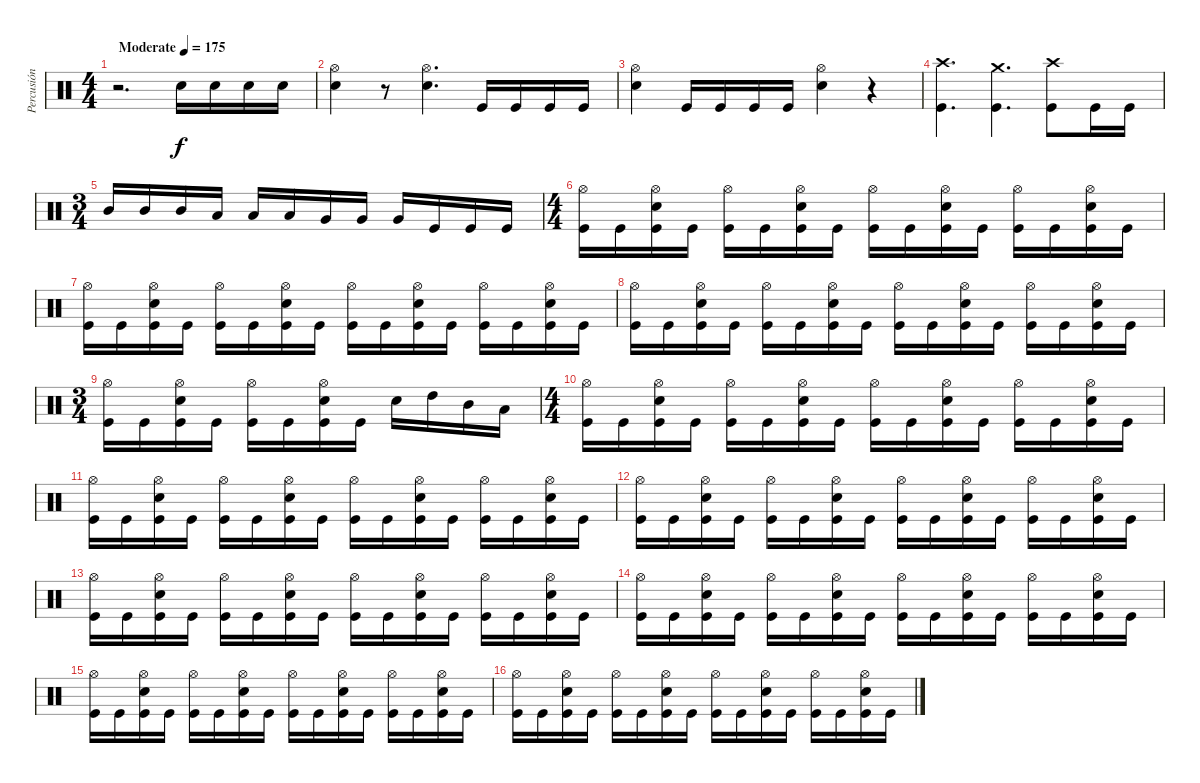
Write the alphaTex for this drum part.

\track ("Percusión" "Percusión") {instrument percussion}
\staff {score}
\articulation defaults
\ts (4 4)
\tempo (175 "Moderate")
\clef neutral
\ks c
r.2{d dy f} "Snare (hit) 2".16 "Snare (hit) 2".16 "Snare (hit) 2".16 "Snare (hit) 2".16 |
("Snare (hit) 2" "Hi-Hat (open)").4 r.8 ("Snare (hit) 2" "Hi-Hat (open)").4{d} "Kick (hit)".16 "Kick (hit)".16 "Kick (hit)".16 "Kick (hit)".16 |
("Hi-Hat (open)" "Snare (hit) 2").4 "Kick (hit)".16 "Kick (hit)".16 "Kick (hit)".16 "Kick (hit)".16 ("Hi-Hat (open)" "Snare (hit) 2").4 r.4 |
("Crash high (hit)" "Kick (hit)").4{d} ("Crash medium (hit)" "Kick (hit)").4{d} ("Crash high (hit)" "Kick (hit)").8 "Kick (hit)".16 "Kick (hit)".16 |
\ts (3 4)
"Mid Tom (hit)".16 "Mid Tom (hit)".16 "Mid Tom (hit)".16 "Low Tom (hit)".16 "Low Tom (hit)".16 "Low Tom (hit)".16 "Very Low Tom (hit)".16 "Very Low Tom (hit)".16 "Very Low Tom (hit)".16 "Kick (hit)".16 "Kick (hit)".16 "Kick (hit)".16 |
\ts (4 4)
("Hi-Hat (open)" "Kick (hit)").16 "Kick (hit)".16 ("Hi-Hat (open)" "Snare (hit) 2" "Kick (hit)").16 "Kick (hit)".16 ("Hi-Hat (open)" "Kick (hit)").16 "Kick (hit)".16 ("Hi-Hat (open)" "Snare (hit) 2" "Kick (hit)").16 "Kick (hit)".16 ("Hi-Hat (open)" "Kick (hit)").16 "Kick (hit)".16 ("Hi-Hat (open)" "Snare (hit) 2" "Kick (hit)").16 "Kick (hit)".16 ("Hi-Hat (open)" "Kick (hit)").16 "Kick (hit)".16 ("Hi-Hat (open)" "Snare (hit) 2" "Kick (hit)").16 "Kick (hit)".16 |
("Hi-Hat (open)" "Kick (hit)").16 "Kick (hit)".16 ("Hi-Hat (open)" "Snare (hit) 2" "Kick (hit)").16 "Kick (hit)".16 ("Hi-Hat (open)" "Kick (hit)").16 "Kick (hit)".16 ("Hi-Hat (open)" "Snare (hit) 2" "Kick (hit)").16 "Kick (hit)".16 ("Hi-Hat (open)" "Kick (hit)").16 "Kick (hit)".16 ("Hi-Hat (open)" "Snare (hit) 2" "Kick (hit)").16 "Kick (hit)".16 ("Hi-Hat (open)" "Kick (hit)").16 "Kick (hit)".16 ("Hi-Hat (open)" "Snare (hit) 2" "Kick (hit)").16 "Kick (hit)".16 |
("Hi-Hat (open)" "Kick (hit)").16 "Kick (hit)".16 ("Hi-Hat (open)" "Snare (hit) 2" "Kick (hit)").16 "Kick (hit)".16 ("Hi-Hat (open)" "Kick (hit)").16 "Kick (hit)".16 ("Hi-Hat (open)" "Snare (hit) 2" "Kick (hit)").16 "Kick (hit)".16 ("Hi-Hat (open)" "Kick (hit)").16 "Kick (hit)".16 ("Hi-Hat (open)" "Snare (hit) 2" "Kick (hit)").16 "Kick (hit)".16 ("Hi-Hat (open)" "Kick (hit)").16 "Kick (hit)".16 ("Hi-Hat (open)" "Snare (hit) 2" "Kick (hit)").16 "Kick (hit)".16 |
\ts (3 4)
("Hi-Hat (open)" "Kick (hit)").16 "Kick (hit)".16 ("Hi-Hat (open)" "Snare (hit) 2" "Kick (hit)").16 "Kick (hit)".16 ("Hi-Hat (open)" "Kick (hit)").16 "Kick (hit)".16 ("Hi-Hat (open)" "Snare (hit) 2" "Kick (hit)").16 "Kick (hit)".16 "Snare (hit) 2".16 "High Tom (hit)".16 "Mid Tom (hit)".16 "Low Tom (hit)".16 |
\ts (4 4)
("Hi-Hat (open)" "Kick (hit)").16 "Kick (hit)".16 ("Hi-Hat (open)" "Snare (hit) 2" "Kick (hit)").16 "Kick (hit)".16 ("Hi-Hat (open)" "Kick (hit)").16 "Kick (hit)".16 ("Hi-Hat (open)" "Snare (hit) 2" "Kick (hit)").16 "Kick (hit)".16 ("Hi-Hat (open)" "Kick (hit)").16 "Kick (hit)".16 ("Hi-Hat (open)" "Snare (hit) 2" "Kick (hit)").16 "Kick (hit)".16 ("Hi-Hat (open)" "Kick (hit)").16 "Kick (hit)".16 ("Hi-Hat (open)" "Snare (hit) 2" "Kick (hit)").16 "Kick (hit)".16 |
("Hi-Hat (open)" "Kick (hit)").16 "Kick (hit)".16 ("Hi-Hat (open)" "Snare (hit) 2" "Kick (hit)").16 "Kick (hit)".16 ("Hi-Hat (open)" "Kick (hit)").16 "Kick (hit)".16 ("Hi-Hat (open)" "Snare (hit) 2" "Kick (hit)").16 "Kick (hit)".16 ("Hi-Hat (open)" "Kick (hit)").16 "Kick (hit)".16 ("Hi-Hat (open)" "Snare (hit) 2" "Kick (hit)").16 "Kick (hit)".16 ("Hi-Hat (open)" "Kick (hit)").16 "Kick (hit)".16 ("Hi-Hat (open)" "Snare (hit) 2" "Kick (hit)").16 "Kick (hit)".16 |
("Hi-Hat (open)" "Kick (hit)").16 "Kick (hit)".16 ("Hi-Hat (open)" "Snare (hit) 2" "Kick (hit)").16 "Kick (hit)".16 ("Hi-Hat (open)" "Kick (hit)").16 "Kick (hit)".16 ("Hi-Hat (open)" "Snare (hit) 2" "Kick (hit)").16 "Kick (hit)".16 ("Hi-Hat (open)" "Kick (hit)").16 "Kick (hit)".16 ("Hi-Hat (open)" "Snare (hit) 2" "Kick (hit)").16 "Kick (hit)".16 ("Hi-Hat (open)" "Kick (hit)").16 "Kick (hit)".16 ("Hi-Hat (open)" "Snare (hit) 2" "Kick (hit)").16 "Kick (hit)".16 |
("Hi-Hat (open)" "Kick (hit)").16 "Kick (hit)".16 ("Hi-Hat (open)" "Snare (hit) 2" "Kick (hit)").16 "Kick (hit)".16 ("Hi-Hat (open)" "Kick (hit)").16 "Kick (hit)".16 ("Hi-Hat (open)" "Snare (hit) 2" "Kick (hit)").16 "Kick (hit)".16 ("Hi-Hat (open)" "Kick (hit)").16 "Kick (hit)".16 ("Hi-Hat (open)" "Snare (hit) 2" "Kick (hit)").16 "Kick (hit)".16 ("Hi-Hat (open)" "Kick (hit)").16 "Kick (hit)".16 ("Hi-Hat (open)" "Snare (hit) 2" "Kick (hit)").16 "Kick (hit)".16 |
("Hi-Hat (open)" "Kick (hit)").16 "Kick (hit)".16 ("Hi-Hat (open)" "Snare (hit) 2" "Kick (hit)").16 "Kick (hit)".16 ("Hi-Hat (open)" "Kick (hit)").16 "Kick (hit)".16 ("Hi-Hat (open)" "Snare (hit) 2" "Kick (hit)").16 "Kick (hit)".16 ("Hi-Hat (open)" "Kick (hit)").16 "Kick (hit)".16 ("Hi-Hat (open)" "Snare (hit) 2" "Kick (hit)").16 "Kick (hit)".16 ("Hi-Hat (open)" "Kick (hit)").16 "Kick (hit)".16 ("Hi-Hat (open)" "Snare (hit) 2" "Kick (hit)").16 "Kick (hit)".16 |
("Hi-Hat (open)" "Kick (hit)").16 "Kick (hit)".16 ("Hi-Hat (open)" "Snare (hit) 2" "Kick (hit)").16 "Kick (hit)".16 ("Hi-Hat (open)" "Kick (hit)").16 "Kick (hit)".16 ("Hi-Hat (open)" "Snare (hit) 2" "Kick (hit)").16 "Kick (hit)".16 ("Hi-Hat (open)" "Kick (hit)").16 "Kick (hit)".16 ("Hi-Hat (open)" "Snare (hit) 2" "Kick (hit)").16 "Kick (hit)".16 ("Hi-Hat (open)" "Kick (hit)").16 "Kick (hit)".16 ("Hi-Hat (open)" "Snare (hit) 2" "Kick (hit)").16 "Kick (hit)".16 |
("Hi-Hat (open)" "Kick (hit)").16 "Kick (hit)".16 ("Hi-Hat (open)" "Snare (hit) 2" "Kick (hit)").16 "Kick (hit)".16 ("Hi-Hat (open)" "Kick (hit)").16 "Kick (hit)".16 ("Hi-Hat (open)" "Snare (hit) 2" "Kick (hit)").16 "Kick (hit)".16 ("Hi-Hat (open)" "Kick (hit)").16 "Kick (hit)".16 ("Hi-Hat (open)" "Snare (hit) 2" "Kick (hit)").16 "Kick (hit)".16 ("Hi-Hat (open)" "Kick (hit)").16 "Kick (hit)".16 ("Hi-Hat (open)" "Snare (hit) 2" "Kick (hit)").16 "Kick (hit)".16
